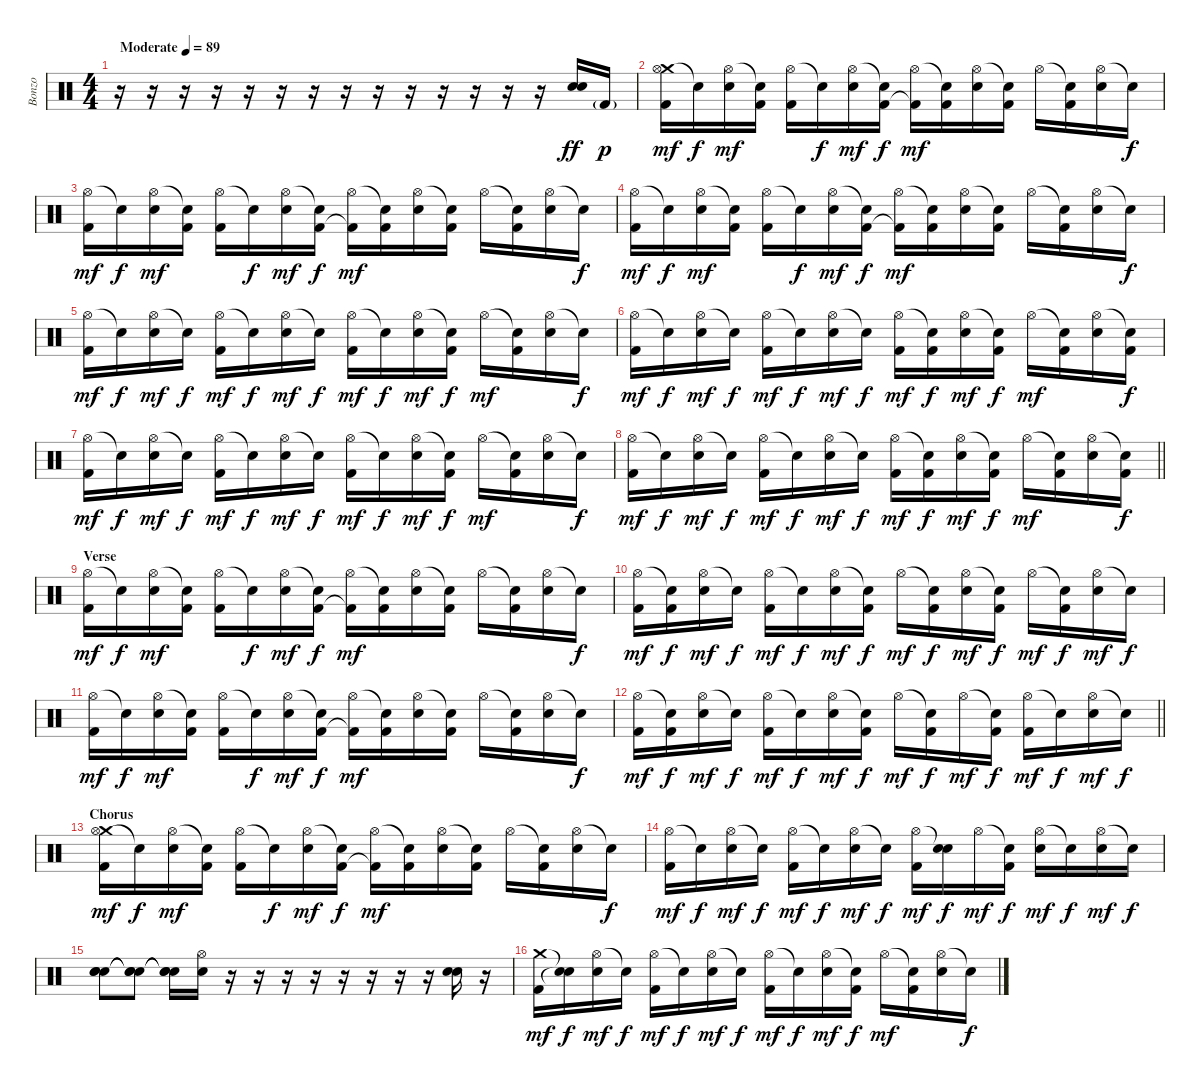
\track ("Bonzo" "Bonzo") {instrument percussion}
\staff {score}
\articulation defaults
\ts (4 4)
\tempo (89 "Moderate")
\clef neutral
\ks c
r.16{dy ff} r.16 r.16 r.16 r.16 r.16 r.16 r.16 r.16 r.16 r.16 r.16 r.16 r.16 ("Snare (hit) 2" "Snare (hit) 2").16 "Kick (hit) 2"{g}.16{dy p} |
("Crash medium (hit)" "Hi-Hat (open)" "Kick (hit) 2").16{dy mf} "Snare (hit)"{t}.16{dy f} ("Hi-Hat (open)" "Snare (hit) 2").16{dy mf} ("Snare (hit)"{t} "Kick (hit) 2").16 ("Hi-Hat (open)" "Kick (hit) 2").16 "Snare (hit)"{t}.16{dy f} ("Hi-Hat (open)" "Snare (hit) 2").16{dy mf} ("Snare (hit)"{t} "Kick (hit) 2").16{dy f} ("Hi-Hat (open)" "Kick (hit) 2"{t}).16{dy mf} ("Snare (hit)"{t} "Kick (hit) 2").16 ("Hi-Hat (open)" "Snare (hit) 2").16 ("Snare (hit)"{t} "Kick (hit) 2").16 "Hi-Hat (open)".16 ("Snare (hit)"{t} "Kick (hit) 2").16 ("Hi-Hat (open)" "Snare (hit) 2").16 "Snare (hit)"{t}.16{dy f} |
("Hi-Hat (open)" "Kick (hit) 2").16{dy mf} "Snare (hit)"{t}.16{dy f} ("Hi-Hat (open)" "Snare (hit) 2").16{dy mf} ("Snare (hit)"{t} "Kick (hit) 2").16 ("Hi-Hat (open)" "Kick (hit) 2").16 "Snare (hit)"{t}.16{dy f} ("Hi-Hat (open)" "Snare (hit) 2").16{dy mf} ("Snare (hit)"{t} "Kick (hit) 2").16{dy f} ("Hi-Hat (open)" "Kick (hit) 2"{t}).16{dy mf} ("Snare (hit)"{t} "Kick (hit) 2").16 ("Hi-Hat (open)" "Snare (hit) 2").16 ("Snare (hit)"{t} "Kick (hit) 2").16 "Hi-Hat (open)".16 ("Snare (hit)"{t} "Kick (hit) 2").16 ("Hi-Hat (open)" "Snare (hit) 2").16 "Snare (hit)"{t}.16{dy f} |
("Hi-Hat (open)" "Kick (hit) 2").16{dy mf} "Snare (hit)"{t}.16{dy f} ("Hi-Hat (open)" "Snare (hit) 2").16{dy mf} ("Snare (hit)"{t} "Kick (hit) 2").16 ("Hi-Hat (open)" "Kick (hit) 2").16 "Snare (hit)"{t}.16{dy f} ("Hi-Hat (open)" "Snare (hit) 2").16{dy mf} ("Snare (hit)"{t} "Kick (hit) 2").16{dy f} ("Hi-Hat (open)" "Kick (hit) 2"{t}).16{dy mf} ("Snare (hit)"{t} "Kick (hit) 2").16 ("Hi-Hat (open)" "Snare (hit) 2").16 ("Snare (hit)"{t} "Kick (hit) 2").16 "Hi-Hat (open)".16 ("Snare (hit)"{t} "Kick (hit) 2").16 ("Hi-Hat (open)" "Snare (hit) 2").16 "Snare (hit)"{t}.16{dy f} |
("Hi-Hat (open)" "Kick (hit) 2").16{dy mf} "Snare (hit)"{t}.16{dy f} ("Hi-Hat (open)" "Snare (hit) 2").16{dy mf} "Snare (hit)"{t}.16{dy f} ("Hi-Hat (open)" "Kick (hit) 2").16{dy mf} "Snare (hit)"{t}.16{dy f} ("Hi-Hat (open)" "Snare (hit) 2").16{dy mf} "Snare (hit)"{t}.16{dy f} ("Hi-Hat (open)" "Kick (hit) 2").16{dy mf} "Snare (hit)"{t}.16{dy f} ("Hi-Hat (open)" "Snare (hit) 2").16{dy mf} ("Snare (hit)"{t} "Kick (hit) 2").16{dy f} "Hi-Hat (open)".16{dy mf} ("Snare (hit)"{t} "Kick (hit) 2").16 ("Hi-Hat (open)" "Snare (hit) 2").16 "Snare (hit)"{t}.16{dy f} |
("Hi-Hat (open)" "Kick (hit) 2").16{dy mf} "Snare (hit)"{t}.16{dy f} ("Hi-Hat (open)" "Snare (hit) 2").16{dy mf} "Snare (hit)"{t}.16{dy f} ("Hi-Hat (open)" "Kick (hit) 2").16{dy mf} "Snare (hit)"{t}.16{dy f} ("Hi-Hat (open)" "Snare (hit) 2").16{dy mf} "Snare (hit)"{t}.16{dy f} ("Hi-Hat (open)" "Kick (hit) 2").16{dy mf} ("Snare (hit)"{t} "Kick (hit) 2").16{dy f} ("Hi-Hat (open)" "Snare (hit) 2").16{dy mf} ("Snare (hit)"{t} "Kick (hit) 2").16{dy f} "Hi-Hat (open)".16{dy mf} ("Snare (hit)"{t} "Kick (hit) 2").16 ("Hi-Hat (open)" "Snare (hit) 2").16 ("Snare (hit)"{t} "Kick (hit) 2").16{dy f} |
("Hi-Hat (open)" "Kick (hit) 2").16{dy mf} "Snare (hit)"{t}.16{dy f} ("Hi-Hat (open)" "Snare (hit) 2").16{dy mf} "Snare (hit)"{t}.16{dy f} ("Hi-Hat (open)" "Kick (hit) 2").16{dy mf} "Snare (hit)"{t}.16{dy f} ("Hi-Hat (open)" "Snare (hit) 2").16{dy mf} "Snare (hit)"{t}.16{dy f} ("Hi-Hat (open)" "Kick (hit) 2").16{dy mf} "Snare (hit)"{t}.16{dy f} ("Hi-Hat (open)" "Snare (hit) 2").16{dy mf} ("Snare (hit)"{t} "Kick (hit) 2").16{dy f} "Hi-Hat (open)".16{dy mf} ("Snare (hit)"{t} "Kick (hit) 2").16 ("Hi-Hat (open)" "Snare (hit) 2").16 "Snare (hit)"{t}.16{dy f} |
\barLineRight lightlight
("Hi-Hat (open)" "Kick (hit) 2").16{dy mf} "Snare (hit)"{t}.16{dy f} ("Hi-Hat (open)" "Snare (hit) 2").16{dy mf} "Snare (hit)"{t}.16{dy f} ("Hi-Hat (open)" "Kick (hit) 2").16{dy mf} "Snare (hit)"{t}.16{dy f} ("Hi-Hat (open)" "Snare (hit) 2").16{dy mf} "Snare (hit)"{t}.16{dy f} ("Hi-Hat (open)" "Kick (hit) 2").16{dy mf} ("Snare (hit)"{t} "Kick (hit) 2").16{dy f} ("Hi-Hat (open)" "Snare (hit) 2").16{dy mf} ("Snare (hit)"{t} "Kick (hit) 2").16{dy f} "Hi-Hat (open)".16{dy mf} ("Snare (hit)"{t} "Kick (hit) 2").16 ("Hi-Hat (open)" "Snare (hit) 2").16 ("Snare (hit)"{t} "Kick (hit) 2").16{dy f} |
\section ("" "Verse")
("Hi-Hat (open)" "Kick (hit) 2").16{dy mf} "Snare (hit)"{t}.16{dy f} ("Hi-Hat (open)" "Snare (hit) 2").16{dy mf} ("Snare (hit)"{t} "Kick (hit) 2").16 ("Hi-Hat (open)" "Kick (hit) 2").16 "Snare (hit)"{t}.16{dy f} ("Hi-Hat (open)" "Snare (hit) 2").16{dy mf} ("Snare (hit)"{t} "Kick (hit) 2").16{dy f} ("Hi-Hat (open)" "Kick (hit) 2"{t}).16{dy mf} ("Snare (hit)"{t} "Kick (hit) 2").16 ("Hi-Hat (open)" "Snare (hit) 2").16 ("Snare (hit)"{t} "Kick (hit) 2").16 "Hi-Hat (open)".16 ("Snare (hit)"{t} "Kick (hit) 2").16 ("Hi-Hat (open)" "Snare (hit) 2").16 "Snare (hit)"{t}.16{dy f} |
("Hi-Hat (open)" "Kick (hit) 2").16{dy mf} ("Snare (hit)"{t} "Kick (hit) 2").16{dy f} ("Hi-Hat (open)" "Snare (hit) 2").16{dy mf} "Snare (hit)"{t}.16{dy f} ("Hi-Hat (open)" "Kick (hit) 2").16{dy mf} "Snare (hit)"{t}.16{dy f} ("Hi-Hat (open)" "Snare (hit) 2").16{dy mf} ("Snare (hit)"{t} "Kick (hit) 2").16{dy f} "Hi-Hat (open)".16{dy mf} ("Snare (hit)"{t} "Kick (hit) 2").16{dy f} ("Hi-Hat (open)" "Snare (hit) 2").16{dy mf} ("Snare (hit)"{t} "Kick (hit) 2").16{dy f} "Hi-Hat (open)".16{dy mf} ("Snare (hit)"{t} "Kick (hit) 2").16{dy f} ("Hi-Hat (open)" "Snare (hit) 2").16{dy mf} "Snare (hit)"{t}.16{dy f} |
("Hi-Hat (open)" "Kick (hit) 2").16{dy mf} "Snare (hit)"{t}.16{dy f} ("Hi-Hat (open)" "Snare (hit) 2").16{dy mf} ("Snare (hit)"{t} "Kick (hit) 2").16 ("Hi-Hat (open)" "Kick (hit) 2").16 "Snare (hit)"{t}.16{dy f} ("Hi-Hat (open)" "Snare (hit) 2").16{dy mf} ("Snare (hit)"{t} "Kick (hit) 2").16{dy f} ("Hi-Hat (open)" "Kick (hit) 2"{t}).16{dy mf} ("Snare (hit)"{t} "Kick (hit) 2").16 ("Hi-Hat (open)" "Snare (hit) 2").16 ("Snare (hit)"{t} "Kick (hit) 2").16 "Hi-Hat (open)".16 ("Snare (hit)"{t} "Kick (hit) 2").16 ("Hi-Hat (open)" "Snare (hit) 2").16 "Snare (hit)"{t}.16{dy f} |
\barLineRight lightlight
("Hi-Hat (open)" "Kick (hit) 2").16{dy mf} ("Snare (hit)"{t} "Kick (hit) 2").16{dy f} ("Hi-Hat (open)" "Snare (hit) 2").16{dy mf} "Snare (hit)"{t}.16{dy f} ("Hi-Hat (open)" "Kick (hit) 2").16{dy mf} "Snare (hit)"{t}.16{dy f} ("Hi-Hat (open)" "Snare (hit) 2").16{dy mf} ("Snare (hit)"{t} "Kick (hit) 2").16{dy f} "Hi-Hat (open)".16{dy mf} ("Snare (hit)"{t} "Kick (hit) 2").16{dy f} "Hi-Hat (open)".16{dy mf} ("Snare (hit)"{t} "Kick (hit) 2").16{dy f} ("Hi-Hat (open)" "Kick (hit) 2").16{dy mf} "Snare (hit)"{t}.16{dy f} ("Hi-Hat (open)" "Snare (hit) 2").16{dy mf} "Snare (hit)"{t}.16{dy f} |
\section ("" "Chorus")
("Crash medium (hit)" "Hi-Hat (open)" "Kick (hit) 2").16{dy mf} "Snare (hit)"{t}.16{dy f} ("Hi-Hat (open)" "Snare (hit) 2").16{dy mf} ("Snare (hit)"{t} "Kick (hit) 2").16 ("Hi-Hat (open)" "Kick (hit) 2").16 "Snare (hit)"{t}.16{dy f} ("Hi-Hat (open)" "Snare (hit) 2").16{dy mf} ("Snare (hit)"{t} "Kick (hit) 2").16{dy f} ("Hi-Hat (open)" "Kick (hit) 2"{t}).16{dy mf} ("Snare (hit)"{t} "Kick (hit) 2").16 ("Hi-Hat (open)" "Snare (hit) 2").16 ("Snare (hit)"{t} "Kick (hit) 2").16 "Hi-Hat (open)".16 ("Snare (hit)"{t} "Kick (hit) 2").16 ("Hi-Hat (open)" "Snare (hit) 2").16 "Snare (hit)"{t}.16{dy f} |
("Hi-Hat (open)" "Kick (hit) 2").16{dy mf} "Snare (hit)"{t}.16{dy f} ("Hi-Hat (open)" "Snare (hit) 2").16{dy mf} "Snare (hit)"{t}.16{dy f} ("Hi-Hat (open)" "Kick (hit) 2").16{dy mf} "Snare (hit)"{t}.16{dy f} ("Hi-Hat (open)" "Snare (hit) 2").16{dy mf} "Snare (hit)"{t}.16{dy f} ("Hi-Hat (open)" "Kick (hit) 2").16{dy mf} ("Snare (hit)"{t} "Snare (hit) 2").16{dy f} "Hi-Hat (open)".16{dy mf} ("Snare (hit)"{t} "Kick (hit) 2").16{dy f} ("Hi-Hat (open)" "Snare (hit) 2").16{dy mf} "Snare (hit)"{t}.16{dy f} ("Hi-Hat (open)" "Snare (hit) 2").16{dy mf} "Snare (hit)"{t}.16{dy f} |
("Snare (hit) 2" "Snare (hit) 2" "Snare (hit) 2").8 ("Snare (hit)"{t} "Snare (hit)"{t} "Snare (hit)"{t}).8 ("Snare (hit)"{t} "Snare (hit)"{t} "Snare (hit)"{t}).16 ("Hi-Hat (open)" "Snare (hit) 2").16 r.16 r.16 r.16 r.16 r.16 r.16 r.16 r.16 ("Snare (hit) 2" "Snare (hit) 2").16 r.16 |
("Crash medium (hit)" "Kick (hit) 2").16{dy mf} ("Snare (hit)"{t} "Snare (hit)"{t}).16{dy f} ("Hi-Hat (open)" "Snare (hit) 2").16{dy mf} "Snare (hit)"{t}.16{dy f} ("Hi-Hat (open)" "Kick (hit) 2").16{dy mf} "Snare (hit)"{t}.16{dy f} ("Hi-Hat (open)" "Snare (hit) 2").16{dy mf} "Snare (hit)"{t}.16{dy f} ("Hi-Hat (open)" "Kick (hit) 2").16{dy mf} "Snare (hit)"{t}.16{dy f} ("Hi-Hat (open)" "Snare (hit) 2").16{dy mf} ("Snare (hit)"{t} "Kick (hit) 2").16{dy f} "Hi-Hat (open)".16{dy mf} ("Snare (hit)"{t} "Kick (hit) 2").16 ("Hi-Hat (open)" "Snare (hit) 2").16 "Snare (hit)"{t}.16{dy f}
